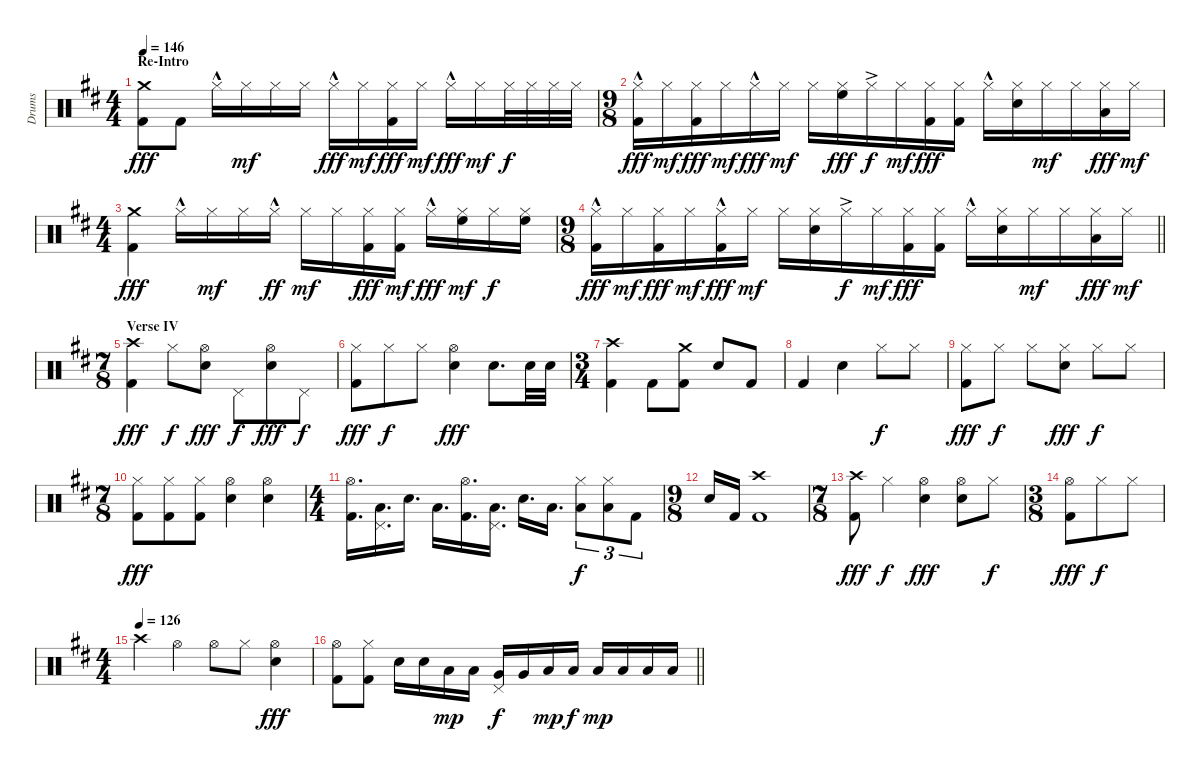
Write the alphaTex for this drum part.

\track ("Drums" "Drums") {instrument percussion}
\staff {score}
\articulation defaults
\ts (4 4)
\section ("" "Re-Intro")
\tempo 146
\clef neutral
\ks d
("Crash medium (hit)" "Kick (hit) 2").8{dy fff} "Kick (hit) 2".8 "Hi-Hat (closed)"{hac}.16 "Hi-Hat (closed)".16{dy mf} "Hi-Hat (closed)".16 "Hi-Hat (closed)".16 "Hi-Hat (closed)"{hac}.16{dy fff} "Hi-Hat (closed)".16{dy mf} ("Hi-Hat (closed)" "Kick (hit) 2").16{dy fff} "Hi-Hat (closed)".16{dy mf} "Hi-Hat (closed)"{hac}.16{dy fff} "Hi-Hat (closed)".16{dy mf} "Hi-Hat (closed)".32{dy f} "Hi-Hat (closed)".32 "Hi-Hat (closed)".32 "Hi-Hat (closed)".32 |
\ts (9 8)
("Hi-Hat (closed)"{hac} "Kick (hit) 2").16{dy fff} "Hi-Hat (closed)".16{dy mf} ("Hi-Hat (closed)" "Kick (hit) 2").16{dy fff} "Hi-Hat (closed)".16{dy mf} "Hi-Hat (closed)"{hac}.16{dy fff} "Hi-Hat (closed)".16{dy mf} "Hi-Hat (closed)".16 ("Hi-Hat (closed)" "High Floor Tom (hit)").16{dy fff} "Hi-Hat (closed)"{ac}.16{dy f} "Hi-Hat (closed)".16{dy mf} ("Hi-Hat (closed)" "Kick (hit) 2").16{dy fff} ("Hi-Hat (closed)" "Kick (hit) 2").16 "Hi-Hat (closed)"{hac}.16 ("Hi-Hat (closed)" "Snare (hit) 2").16 "Hi-Hat (closed)".16{dy mf} "Hi-Hat (closed)".16 ("Hi-Hat (closed)" "Low Floor Tom (hit)").16{dy fff} "Hi-Hat (closed)".16{dy mf} |
\ts (4 4)
("Crash medium (hit)" "Kick (hit) 2").4{dy fff} "Hi-Hat (closed)"{hac}.16 "Hi-Hat (closed)".16{dy mf} "Hi-Hat (closed)".16 "Hi-Hat (closed)"{hac}.16{dy ff} "Hi-Hat (closed)".16{dy mf} "Hi-Hat (closed)".16 ("Hi-Hat (closed)" "Kick (hit) 2").16{dy fff} ("Hi-Hat (closed)" "Kick (hit) 2").16{dy mf} "Hi-Hat (closed)"{hac}.16{dy fff} ("Hi-Hat (closed)" "High Floor Tom (hit)").16{dy mf} "Hi-Hat (closed)".16{dy f} ("Hi-Hat (closed)" "High Floor Tom (hit)").16 |
\ts (9 8)
\barLineRight lightlight
("Hi-Hat (closed)"{hac} "Kick (hit) 2").16{dy fff} "Hi-Hat (closed)".16{dy mf} ("Hi-Hat (closed)" "Kick (hit) 2").16{dy fff} "Hi-Hat (closed)".16{dy mf} ("Hi-Hat (closed)"{hac} "Kick (hit) 2").16{dy fff} "Hi-Hat (closed)".16{dy mf} "Hi-Hat (closed)".16 ("Hi-Hat (closed)" "Snare (hit) 2").16 "Hi-Hat (closed)"{ac}.16{dy f} "Hi-Hat (closed)".16{dy mf} ("Hi-Hat (closed)" "Kick (hit) 2").16{dy fff} ("Hi-Hat (closed)" "Kick (hit) 2").16 "Hi-Hat (closed)"{hac}.16 ("Hi-Hat (closed)" "Snare (hit) 2").16 "Hi-Hat (closed)".16{dy mf} "Hi-Hat (closed)".16 ("Hi-Hat (closed)" "Low Floor Tom (hit)").16{dy fff} "Hi-Hat (closed)".16{dy mf} |
\ts (7 8)
\section ("" "Verse IV")
("Crash high (hit)" "Kick (hit) 2").4{dy fff} "Hi-Hat (closed)".8{dy f} ("Hi-Hat (open)" "Snare (hit) 2").8{dy fff} "Pedal Hi-Hat (hit)".8{dy f} ("Hi-Hat (open)" "Snare (hit) 2").8{dy fff} "Pedal Hi-Hat (hit)".8{dy f} |
("Hi-Hat (closed)" "Kick (hit) 2").8{dy fff} "Hi-Hat (closed)".8{dy f} "Hi-Hat (closed)".8 ("Hi-Hat (open)" "Snare (hit) 2").4{dy fff} "Snare (hit) 2".8{d} "Snare (hit) 2".32 "Snare (hit) 2".32 |
\ts (3 4)
("Crash high (hit)" "Kick (hit) 2").4 "Kick (hit) 2".8 ("Crash medium (hit)" "Kick (hit) 2").8 "Snare (hit) 2".8 "Kick (hit) 2".8 |
"Kick (hit) 2".4 "Snare (hit) 2".4 "Hi-Hat (closed)".8{dy f} "Hi-Hat (closed)".8 |
("Hi-Hat (closed)" "Kick (hit) 2").8{dy fff} "Hi-Hat (closed)".8{dy f} "Hi-Hat (closed)".8 ("Hi-Hat (closed)" "Snare (hit) 2").8{dy fff} "Hi-Hat (closed)".8{dy f} "Hi-Hat (closed)".8 |
\ts (7 8)
("Hi-Hat (closed)" "Kick (hit) 2").8{dy fff} ("Hi-Hat (closed)" "Kick (hit) 2").8 ("Hi-Hat (closed)" "Kick (hit) 2").8 ("Hi-Hat (open)" "Snare (hit) 2").4 ("Hi-Hat (open)" "Snare (hit) 2").4 |
\ts (4 4)
("Hi-Hat (open)" "Kick (hit) 2").16{d} ("Pedal Hi-Hat (hit)" "Low Tom (hit)").16{d} "Snare (hit) 2".16{d} "Low Tom (hit)".16{d} ("Hi-Hat (open)" "Kick (hit) 2").16{d} ("Pedal Hi-Hat (hit)" "Low Tom (hit)").16{d} "Snare (hit) 2".16{d} "Low Tom (hit)".16{d} ("Hi-Hat (closed)" "Low Tom (hit)").8{tu (3 2) dy f} ("Hi-Hat (closed)" "Low Tom (hit)").8{tu (3 2)} "Kick (hit) 2".8{tu (3 2)} |
\ts (9 8)
"Snare (hit) 2".16 "Kick (hit) 2".16 ("Crash high (hit)" "Kick (hit) 2").1 |
\ts (7 8)
("Crash high (hit)" "Kick (hit) 2").8{dy fff} "Hi-Hat (closed)".4{dy f} ("Hi-Hat (open)" "Snare (hit) 2").4{dy fff} ("Hi-Hat (open)" "Snare (hit) 2").8 "Hi-Hat (closed)".8{dy f} |
\ts (3 8)
("Hi-Hat (open)" "Kick (hit) 2").8{dy fff} "Hi-Hat (closed)".8{dy f} "Hi-Hat (closed)".8 |
\ts (4 4)
\tempo (126)
"Crash high (hit)".4 "Hi-Hat (open)".4 "Hi-Hat (open)".8 "Hi-Hat (closed)".8 ("Hi-Hat (open)" "Snare (hit) 2").4{dy fff} |
\barLineRight lightlight
("Hi-Hat (open)" "Kick (hit) 2").8 ("Hi-Hat (closed)" "Kick (hit) 2").8 "Snare (hit) 2".16 "Snare (hit) 2".16 "Low Tom (hit)".16{dy mp} "Low Tom (hit)".16 ("Pedal Hi-Hat (hit)" "Very Low Tom (hit)").16{dy f} "Very Low Tom (hit)".16 "Low Floor Tom (hit)".16{dy mp} "Low Floor Tom (hit)".16{dy f} "Low Floor Tom (hit)".16{dy mp} "Low Floor Tom (hit)".16 "Low Floor Tom (hit)".16 "Low Floor Tom (hit)".16
